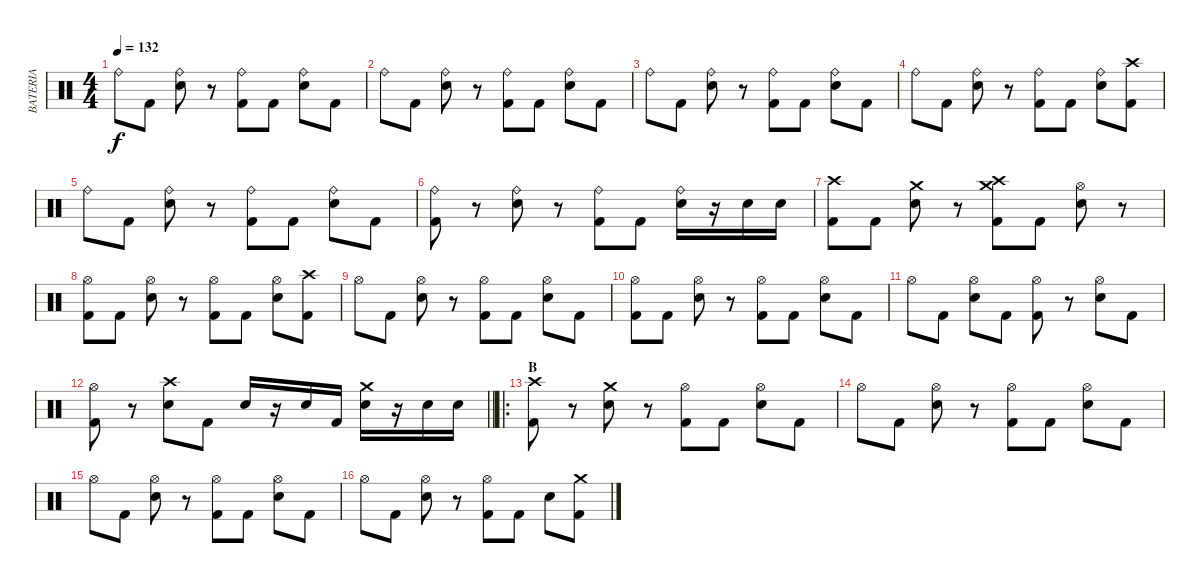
\track ("BATERIA" "BATERIA") {instrument percussion}
\staff {score}
\articulation defaults
\ts (4 4)
\tempo 132
\clef neutral
\ks c "Ride (bell)".8{dy f} "Kick (hit) 2".8
("Ride (bell)" "Electric Snare (hit)").8 r.8 ("Kick (hit) 2" "Ride (bell)").8 "Kick (hit) 2".8 ("Ride (bell)" "Electric Snare (hit)").8 "Kick (hit) 2".8 |
"Ride (bell)".8 "Kick (hit) 2".8 ("Ride (bell)" "Electric Snare (hit)").8 r.8 ("Kick (hit) 2" "Ride (bell)").8 "Kick (hit) 2".8 ("Ride (bell)" "Electric Snare (hit)").8 "Kick (hit) 2".8 |
"Ride (bell)".8 "Kick (hit) 2".8 ("Ride (bell)" "Electric Snare (hit)").8 r.8 ("Kick (hit) 2" "Ride (bell)").8 "Kick (hit) 2".8 ("Ride (bell)" "Electric Snare (hit)").8 "Kick (hit) 2".8 |
"Ride (bell)".8 "Kick (hit) 2".8 ("Ride (bell)" "Electric Snare (hit)").8 r.8 ("Kick (hit) 2" "Ride (bell)").8 "Kick (hit) 2".8 ("Ride (bell)" "Electric Snare (hit)").8 ("Kick (hit) 2" "Crash high (hit)").8 |
"Ride (bell)".8 "Kick (hit) 2".8 ("Ride (bell)" "Electric Snare (hit)").8 r.8 ("Kick (hit) 2" "Ride (bell)").8 "Kick (hit) 2".8 ("Ride (bell)" "Electric Snare (hit)").8 "Kick (hit) 2".8 |
("Kick (hit) 2" "Ride (bell)").8 r.8 ("Ride (bell)" "Electric Snare (hit)").8 r.8 ("Kick (hit) 2" "Ride (bell)").8 "Kick (hit) 2".8 ("Ride (bell)" "Electric Snare (hit)").16 r.16 "Electric Snare (hit)".16 "Electric Snare (hit)".16 |
("Kick (hit) 2" "Crash high (hit)").8 "Kick (hit) 2".8 ("Crash medium (hit)" "Electric Snare (hit)").8 r.8 ("Kick (hit) 2" "Crash medium (hit)" "Crash high (hit)").8 "Kick (hit) 2".8 ("Hi-Hat (open)" "Electric Snare (hit)").8 r.8 |
("Kick (hit) 2" "Hi-Hat (open)").8 "Kick (hit) 2".8 ("Hi-Hat (open)" "Electric Snare (hit)").8 r.8 ("Kick (hit) 2" "Hi-Hat (open)").8 "Kick (hit) 2".8 ("Hi-Hat (open)" "Electric Snare (hit)").8 ("Kick (hit) 2" "Crash high (hit)").8 |
"Hi-Hat (open)".8 "Kick (hit) 2".8 ("Hi-Hat (open)" "Electric Snare (hit)").8 r.8 ("Kick (hit) 2" "Hi-Hat (open)").8 "Kick (hit) 2".8 ("Hi-Hat (open)" "Electric Snare (hit)").8 "Kick (hit) 2".8 |
("Kick (hit) 2" "Hi-Hat (open)").8 "Kick (hit) 2".8 ("Hi-Hat (open)" "Electric Snare (hit)").8 r.8 ("Kick (hit) 2" "Hi-Hat (open)").8 "Kick (hit) 2".8 ("Hi-Hat (open)" "Electric Snare (hit)").8 "Kick (hit) 2".8 |
"Hi-Hat (open)".8 "Kick (hit) 2".8 ("Hi-Hat (open)" "Electric Snare (hit)").8 "Kick (hit) 2".8 ("Kick (hit) 2" "Hi-Hat (open)").8 r.8 ("Hi-Hat (open)" "Electric Snare (hit)").8 "Kick (hit) 2".8 |
\barLineRight lightlight
("Kick (hit) 2" "Hi-Hat (open)").8 r.8 ("Crash high (hit)" "Electric Snare (hit)").8 "Kick (hit) 2".8 "Electric Snare (hit)".16 r.16 "Electric Snare (hit)".16 "Kick (hit) 2".16 ("Crash medium (hit)" "Electric Snare (hit)").16 r.16 "Electric Snare (hit)".16 "Electric Snare (hit)".16 |
\ro
\section ("" "B")
("Kick (hit) 2" "Crash high (hit)").8 r.8 ("Crash medium (hit)" "Electric Snare (hit)").8 r.8 ("Kick (hit) 2" "Hi-Hat (open)").8 "Kick (hit) 2".8 ("Hi-Hat (open)" "Electric Snare (hit)").8 "Kick (hit) 2".8 |
"Hi-Hat (open)".8 "Kick (hit) 2".8 ("Hi-Hat (open)" "Electric Snare (hit)").8 r.8 ("Kick (hit) 2" "Hi-Hat (open)").8 "Kick (hit) 2".8 ("Hi-Hat (open)" "Electric Snare (hit)").8 "Kick (hit) 2".8 |
"Hi-Hat (open)".8 "Kick (hit) 2".8 ("Hi-Hat (open)" "Electric Snare (hit)").8 r.8 ("Kick (hit) 2" "Hi-Hat (open)").8 "Kick (hit) 2".8 ("Hi-Hat (open)" "Electric Snare (hit)").8 "Kick (hit) 2".8 |
"Hi-Hat (open)".8 "Kick (hit) 2".8 ("Hi-Hat (open)" "Electric Snare (hit)").8 r.8 ("Kick (hit) 2" "Hi-Hat (open)").8 "Kick (hit) 2".8 "Electric Snare (hit)".8 ("Kick (hit) 2" "Crash medium (hit)").8
